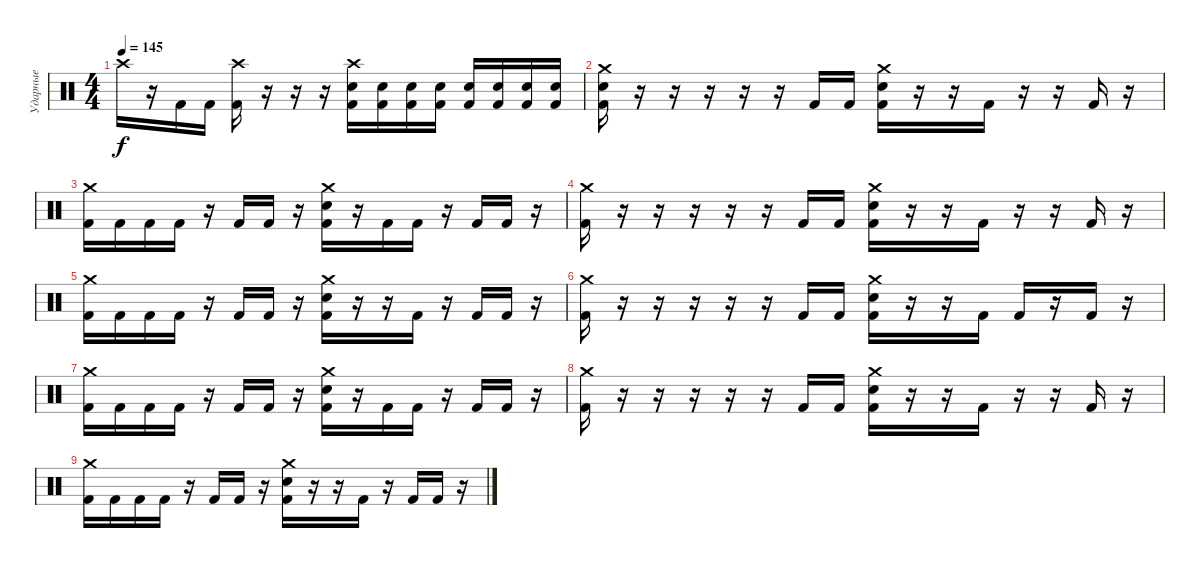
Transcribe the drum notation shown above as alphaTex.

\track ("Ударные" "Ударные") {instrument percussion}
\staff {score}
\articulation defaults
\ts (4 4)
\tempo 145
\clef neutral
\ks c "Crash high (hit)".16{dy f}
r.16 "Kick (hit) 2".16 "Kick (hit) 2".16 ("Crash high (hit)" "Kick (hit) 2").16 r.16 r.16 r.16 ("Crash high (hit)" "Electric Snare (hit)" "Kick (hit) 2").16 ("Electric Snare (hit)" "Kick (hit) 2").16 ("Electric Snare (hit)" "Kick (hit) 2").16 ("Electric Snare (hit)" "Kick (hit) 2").16 ("Electric Snare (hit)" "Kick (hit) 2").16 ("Electric Snare (hit)" "Kick (hit) 2").16 ("Electric Snare (hit)" "Kick (hit) 2").16 ("Electric Snare (hit)" "Kick (hit) 2").16 |
("Crash medium (hit)" "Electric Snare (hit)" "Kick (hit) 2").16 r.16 r.16 r.16 r.16 r.16 "Kick (hit) 2".16 "Kick (hit) 2".16 ("Crash medium (hit)" "Electric Snare (hit)" "Kick (hit) 2").16 r.16 r.16 "Kick (hit) 2".16 r.16 r.16 "Kick (hit) 2".16 r.16 |
("Crash medium (hit)" "Kick (hit) 2").16 "Kick (hit) 2".16 "Kick (hit) 2".16 "Kick (hit) 2".16 r.16 "Kick (hit) 2".16 "Kick (hit) 2".16 r.16 ("Crash medium (hit)" "Electric Snare (hit)" "Kick (hit) 2").16 r.16 "Kick (hit) 2".16 "Kick (hit) 2".16 r.16 "Kick (hit) 2".16 "Kick (hit) 2".16 r.16 |
("Crash medium (hit)" "Kick (hit) 2").16 r.16 r.16 r.16 r.16 r.16 "Kick (hit) 2".16 "Kick (hit) 2".16 ("Crash medium (hit)" "Electric Snare (hit)" "Kick (hit) 2").16 r.16 r.16 "Kick (hit) 2".16 r.16 r.16 "Kick (hit) 2".16 r.16 |
("Crash medium (hit)" "Kick (hit) 2").16 "Kick (hit) 2".16 "Kick (hit) 2".16 "Kick (hit) 2".16 r.16 "Kick (hit) 2".16 "Kick (hit) 2".16 r.16 ("Crash medium (hit)" "Electric Snare (hit)" "Kick (hit) 2").16 r.16 r.16 "Kick (hit) 2".16 r.16 "Kick (hit) 2".16 "Kick (hit) 2".16 r.16 |
("Crash medium (hit)" "Kick (hit) 2").16 r.16 r.16 r.16 r.16 r.16 "Kick (hit) 2".16 "Kick (hit) 2".16 ("Crash medium (hit)" "Electric Snare (hit)" "Kick (hit) 2").16 r.16 r.16 "Kick (hit) 2".16 "Kick (hit) 2".16 r.16 "Kick (hit) 2".16 r.16 |
("Crash medium (hit)" "Kick (hit) 2").16 "Kick (hit) 2".16 "Kick (hit) 2".16 "Kick (hit) 2".16 r.16 "Kick (hit) 2".16 "Kick (hit) 2".16 r.16 ("Crash medium (hit)" "Electric Snare (hit)" "Kick (hit) 2").16 r.16 "Kick (hit) 2".16 "Kick (hit) 2".16 r.16 "Kick (hit) 2".16 "Kick (hit) 2".16 r.16 |
("Crash medium (hit)" "Kick (hit) 2").16 r.16 r.16 r.16 r.16 r.16 "Kick (hit) 2".16 "Kick (hit) 2".16 ("Crash medium (hit)" "Electric Snare (hit)" "Kick (hit) 2").16 r.16 r.16 "Kick (hit) 2".16 r.16 r.16 "Kick (hit) 2".16 r.16 |
("Crash medium (hit)" "Kick (hit) 2").16 "Kick (hit) 2".16 "Kick (hit) 2".16 "Kick (hit) 2".16 r.16 "Kick (hit) 2".16 "Kick (hit) 2".16 r.16 ("Crash medium (hit)" "Electric Snare (hit)" "Kick (hit) 2").16 r.16 r.16 "Kick (hit) 2".16 r.16 "Kick (hit) 2".16 "Kick (hit) 2".16 r.16
